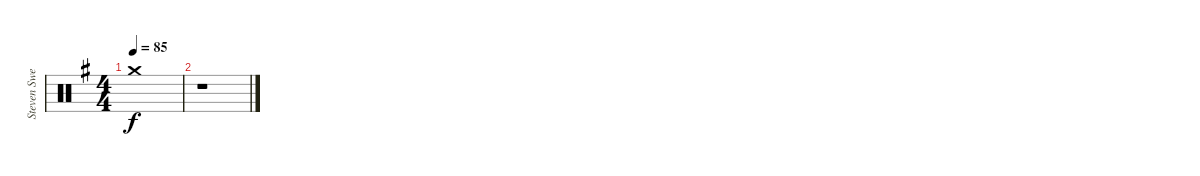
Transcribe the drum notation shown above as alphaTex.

\track ("Steven Sweet" "Steven Swe") {instrument percussion}
\staff {score}
\articulation defaults
\ts (4 4)
\tempo 85
\clef neutral
\ks g "Crash medium (hit)"{t}.1{dy f}
|
r.1
